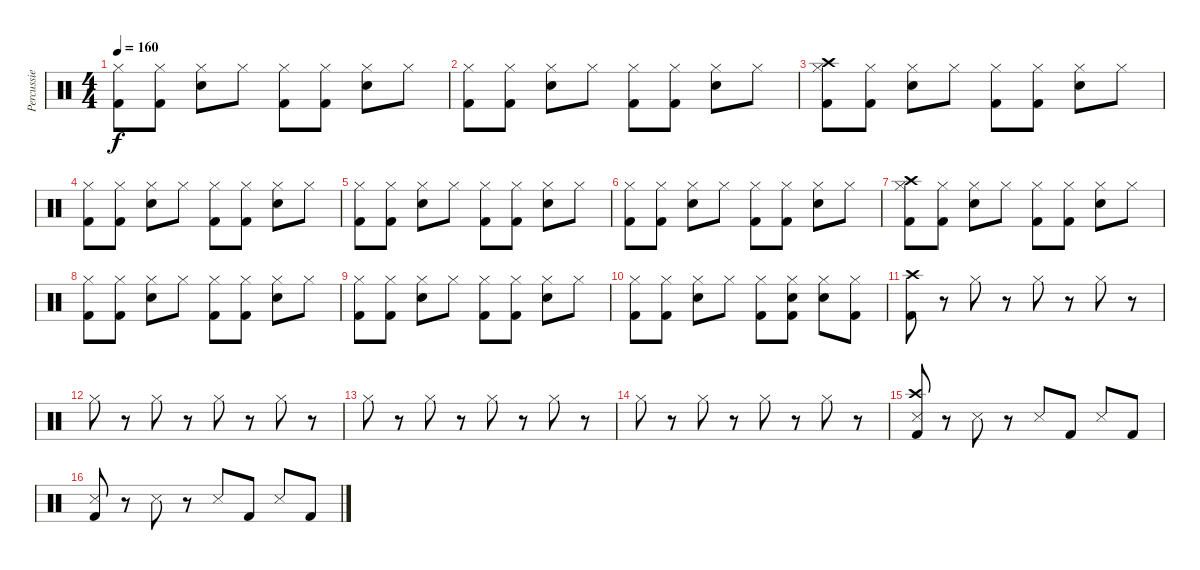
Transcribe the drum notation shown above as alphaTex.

\track ("Percussie" "Percussie") {instrument percussion}
\staff {score}
\articulation defaults
\ts (4 4)
\tempo 160
\clef neutral
\ks c
("Kick (hit) 2" "Hi-Hat (closed)").8{dy f} ("Kick (hit) 2" "Hi-Hat (closed)").8 ("Electric Snare (hit)" "Hi-Hat (closed)").8 "Hi-Hat (closed)".8 ("Kick (hit) 2" "Hi-Hat (closed)").8 ("Kick (hit) 2" "Hi-Hat (closed)").8 ("Electric Snare (hit)" "Hi-Hat (closed)").8 "Hi-Hat (closed)".8 |
("Kick (hit) 2" "Hi-Hat (closed)").8 ("Kick (hit) 2" "Hi-Hat (closed)").8 ("Electric Snare (hit)" "Hi-Hat (closed)").8 "Hi-Hat (closed)".8 ("Kick (hit) 2" "Hi-Hat (closed)").8 ("Kick (hit) 2" "Hi-Hat (closed)").8 ("Electric Snare (hit)" "Hi-Hat (closed)").8 "Hi-Hat (closed)".8 |
("Kick (hit) 2" "Crash high (hit)" "Hi-Hat (closed)").8 ("Kick (hit) 2" "Hi-Hat (closed)").8 ("Electric Snare (hit)" "Hi-Hat (closed)").8 "Hi-Hat (closed)".8 ("Kick (hit) 2" "Hi-Hat (closed)").8 ("Kick (hit) 2" "Hi-Hat (closed)").8 ("Electric Snare (hit)" "Hi-Hat (closed)").8 "Hi-Hat (closed)".8 |
("Kick (hit) 2" "Hi-Hat (closed)").8 ("Kick (hit) 2" "Hi-Hat (closed)").8 ("Electric Snare (hit)" "Hi-Hat (closed)").8 "Hi-Hat (closed)".8 ("Kick (hit) 2" "Hi-Hat (closed)").8 ("Kick (hit) 2" "Hi-Hat (closed)").8 ("Electric Snare (hit)" "Hi-Hat (closed)").8 "Hi-Hat (closed)".8 |
("Kick (hit) 2" "Hi-Hat (closed)").8 ("Kick (hit) 2" "Hi-Hat (closed)").8 ("Electric Snare (hit)" "Hi-Hat (closed)").8 "Hi-Hat (closed)".8 ("Kick (hit) 2" "Hi-Hat (closed)").8 ("Kick (hit) 2" "Hi-Hat (closed)").8 ("Electric Snare (hit)" "Hi-Hat (closed)").8 "Hi-Hat (closed)".8 |
("Kick (hit) 2" "Hi-Hat (closed)").8 ("Kick (hit) 2" "Hi-Hat (closed)").8 ("Electric Snare (hit)" "Hi-Hat (closed)").8 "Hi-Hat (closed)".8 ("Kick (hit) 2" "Hi-Hat (closed)").8 ("Kick (hit) 2" "Hi-Hat (closed)").8 ("Electric Snare (hit)" "Hi-Hat (closed)").8 "Hi-Hat (closed)".8 |
("Kick (hit) 2" "Crash high (hit)" "Hi-Hat (closed)").8 ("Kick (hit) 2" "Hi-Hat (closed)").8 ("Electric Snare (hit)" "Hi-Hat (closed)").8 "Hi-Hat (closed)".8 ("Kick (hit) 2" "Hi-Hat (closed)").8 ("Kick (hit) 2" "Hi-Hat (closed)").8 ("Electric Snare (hit)" "Hi-Hat (closed)").8 "Hi-Hat (closed)".8 |
("Kick (hit) 2" "Hi-Hat (closed)").8 ("Kick (hit) 2" "Hi-Hat (closed)").8 ("Electric Snare (hit)" "Hi-Hat (closed)").8 "Hi-Hat (closed)".8 ("Kick (hit) 2" "Hi-Hat (closed)").8 ("Kick (hit) 2" "Hi-Hat (closed)").8 ("Electric Snare (hit)" "Hi-Hat (closed)").8 "Hi-Hat (closed)".8 |
("Kick (hit) 2" "Hi-Hat (closed)").8 ("Kick (hit) 2" "Hi-Hat (closed)").8 ("Electric Snare (hit)" "Hi-Hat (closed)").8 "Hi-Hat (closed)".8 ("Kick (hit) 2" "Hi-Hat (closed)").8 ("Kick (hit) 2" "Hi-Hat (closed)").8 ("Electric Snare (hit)" "Hi-Hat (closed)").8 "Hi-Hat (closed)".8 |
("Kick (hit) 2" "Hi-Hat (closed)").8 ("Kick (hit) 2" "Hi-Hat (closed)").8 ("Electric Snare (hit)" "Hi-Hat (closed)").8 "Hi-Hat (closed)".8 ("Kick (hit) 2" "Hi-Hat (closed)").8 ("Kick (hit) 2" "Electric Snare (hit)" "Hi-Hat (closed)").8 ("Electric Snare (hit)" "Hi-Hat (closed)").8 ("Kick (hit) 2" "Hi-Hat (closed)").8 |
("Kick (hit) 2" "Crash high (hit)").8 r.8 "Hi-Hat (closed)".8 r.8 "Hi-Hat (closed)".8 r.8 "Hi-Hat (closed)".8 r.8 |
"Hi-Hat (closed)".8 r.8 "Hi-Hat (closed)".8 r.8 "Hi-Hat (closed)".8 r.8 "Hi-Hat (closed)".8 r.8 |
"Hi-Hat (closed)".8 r.8 "Hi-Hat (closed)".8 r.8 "Hi-Hat (closed)".8 r.8 "Hi-Hat (closed)".8 r.8 |
"Hi-Hat (closed)".8 r.8 "Hi-Hat (closed)".8 r.8 "Hi-Hat (closed)".8 r.8 "Hi-Hat (closed)".8 r.8 |
("Kick (hit) 2" "Crash high (hit)" "Metronome (hit)").8 r.8 "Metronome (hit)".8 r.8 "Metronome (hit)".8 "Kick (hit) 2".8 "Metronome (hit)".8 "Kick (hit) 2".8 |
("Kick (hit) 2" "Metronome (hit)").8 r.8 "Metronome (hit)".8 r.8 "Metronome (hit)".8 "Kick (hit) 2".8 "Metronome (hit)".8 "Kick (hit) 2".8
